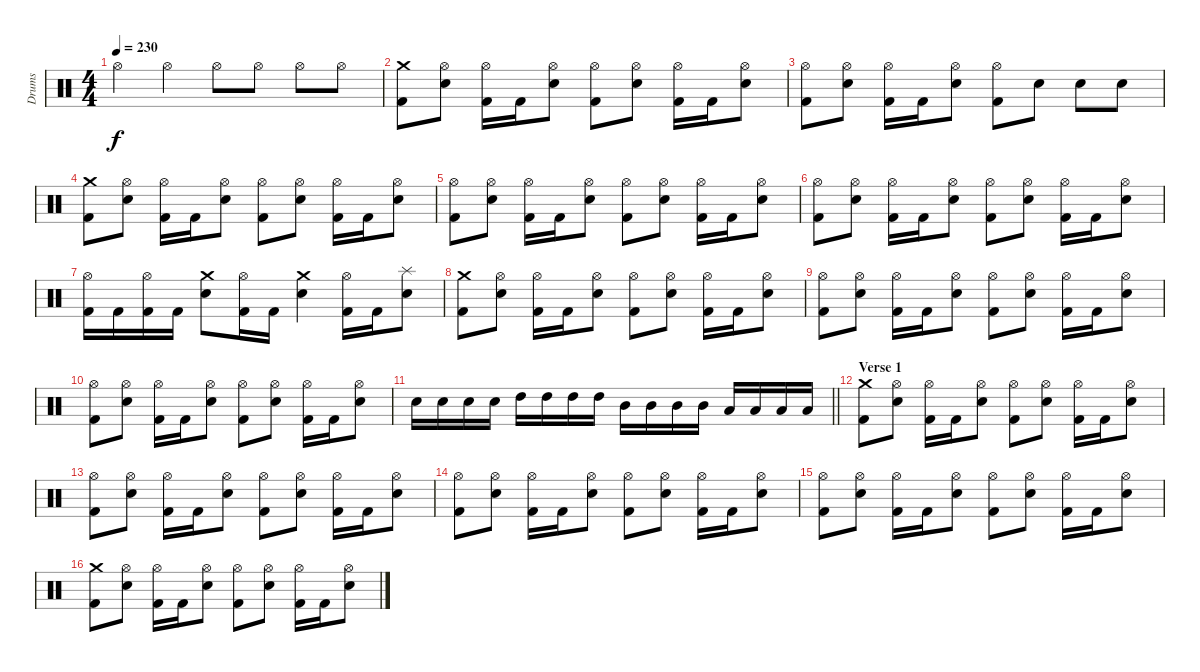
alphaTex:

\track ("Drums" "Drums") {instrument percussion}
\staff {score}
\articulation defaults
\ts (4 4)
\tempo 230
\clef neutral
\ks c "Hi-Hat (open)".4{dy f} "Hi-Hat (open)".4 "Hi-Hat (open)".8 "Hi-Hat (open)".8 "Hi-Hat (open)".8 "Hi-Hat (open)".8
|
("Crash medium (hit)" "Kick (hit) 2").8 ("Hi-Hat (open)" "Electric Snare (hit)").8 ("Hi-Hat (open)" "Kick (hit) 2").16 "Kick (hit) 2".16 ("Hi-Hat (open)" "Electric Snare (hit)").8 ("Hi-Hat (open)" "Kick (hit) 2").8 ("Hi-Hat (open)" "Electric Snare (hit)").8 ("Hi-Hat (open)" "Kick (hit) 2").16 "Kick (hit) 2".16 ("Hi-Hat (open)" "Electric Snare (hit)").8 |
("Hi-Hat (open)" "Kick (hit) 2").8 ("Hi-Hat (open)" "Electric Snare (hit)").8 ("Hi-Hat (open)" "Kick (hit) 2").16 "Kick (hit) 2".16 ("Hi-Hat (open)" "Electric Snare (hit)").8 ("Hi-Hat (open)" "Kick (hit) 2").8 "Electric Snare (hit)".8 "Electric Snare (hit)".8 "Electric Snare (hit)".8 |
("Crash medium (hit)" "Kick (hit) 2").8 ("Hi-Hat (open)" "Electric Snare (hit)").8 ("Hi-Hat (open)" "Kick (hit) 2").16 "Kick (hit) 2".16 ("Hi-Hat (open)" "Electric Snare (hit)").8 ("Hi-Hat (open)" "Kick (hit) 2").8 ("Hi-Hat (open)" "Electric Snare (hit)").8 ("Hi-Hat (open)" "Kick (hit) 2").16 "Kick (hit) 2".16 ("Hi-Hat (open)" "Electric Snare (hit)").8 |
("Hi-Hat (open)" "Kick (hit) 2").8 ("Hi-Hat (open)" "Electric Snare (hit)").8 ("Hi-Hat (open)" "Kick (hit) 2").16 "Kick (hit) 2".16 ("Hi-Hat (open)" "Electric Snare (hit)").8 ("Hi-Hat (open)" "Kick (hit) 2").8 ("Hi-Hat (open)" "Electric Snare (hit)").8 ("Hi-Hat (open)" "Kick (hit) 2").16 "Kick (hit) 2".16 ("Hi-Hat (open)" "Electric Snare (hit)").8 |
("Hi-Hat (open)" "Kick (hit) 2").8 ("Hi-Hat (open)" "Electric Snare (hit)").8 ("Hi-Hat (open)" "Kick (hit) 2").16 "Kick (hit) 2".16 ("Hi-Hat (open)" "Electric Snare (hit)").8 ("Hi-Hat (open)" "Kick (hit) 2").8 ("Hi-Hat (open)" "Electric Snare (hit)").8 ("Hi-Hat (open)" "Kick (hit) 2").16 "Kick (hit) 2".16 ("Hi-Hat (open)" "Electric Snare (hit)").8 |
("Hi-Hat (open)" "Kick (hit) 2").16 "Kick (hit) 2".16 ("Hi-Hat (open)" "Kick (hit) 2").16 "Kick (hit) 2".16 ("Crash medium (hit)" "Electric Snare (hit)").8 ("Hi-Hat (open)" "Kick (hit) 2").16 "Kick (hit) 2".16 ("Crash medium (hit)" "Electric Snare (hit)").4 ("Hi-Hat (open)" "Kick (hit) 2").16 "Kick (hit) 2".16 ("Splash (hit)" "Electric Snare (hit)").8 |
("Crash medium (hit)" "Kick (hit) 2").8 ("Hi-Hat (open)" "Electric Snare (hit)").8 ("Hi-Hat (open)" "Kick (hit) 2").16 "Kick (hit) 2".16 ("Hi-Hat (open)" "Electric Snare (hit)").8 ("Hi-Hat (open)" "Kick (hit) 2").8 ("Hi-Hat (open)" "Electric Snare (hit)").8 ("Hi-Hat (open)" "Kick (hit) 2").16 "Kick (hit) 2".16 ("Hi-Hat (open)" "Electric Snare (hit)").8 |
("Hi-Hat (open)" "Kick (hit) 2").8 ("Hi-Hat (open)" "Electric Snare (hit)").8 ("Hi-Hat (open)" "Kick (hit) 2").16 "Kick (hit) 2".16 ("Hi-Hat (open)" "Electric Snare (hit)").8 ("Hi-Hat (open)" "Kick (hit) 2").8 ("Hi-Hat (open)" "Electric Snare (hit)").8 ("Hi-Hat (open)" "Kick (hit) 2").16 "Kick (hit) 2".16 ("Hi-Hat (open)" "Electric Snare (hit)").8 |
("Hi-Hat (open)" "Kick (hit) 2").8 ("Hi-Hat (open)" "Electric Snare (hit)").8 ("Hi-Hat (open)" "Kick (hit) 2").16 "Kick (hit) 2".16 ("Hi-Hat (open)" "Electric Snare (hit)").8 ("Hi-Hat (open)" "Kick (hit) 2").8 ("Hi-Hat (open)" "Electric Snare (hit)").8 ("Hi-Hat (open)" "Kick (hit) 2").16 "Kick (hit) 2".16 ("Hi-Hat (open)" "Electric Snare (hit)").8 |
\barLineRight lightlight "Electric Snare (hit)".16 "Electric Snare (hit)".16 "Electric Snare (hit)".16 "Electric Snare (hit)".16 "High Tom (hit)".16 "High Tom (hit)".16 "High Tom (hit)".16 "High Tom (hit)".16 "Mid Tom (hit)".16 "Mid Tom (hit)".16 "Mid Tom (hit)".16 "Mid Tom (hit)".16 "Low Tom (hit)".16 "Low Tom (hit)".16 "Low Tom (hit)".16 "Low Tom (hit)".16
|
\section ("" "Verse 1")
("Crash medium (hit)" "Kick (hit) 2").8 ("Hi-Hat (open)" "Electric Snare (hit)").8 ("Hi-Hat (open)" "Kick (hit) 2").16 "Kick (hit) 2".16 ("Hi-Hat (open)" "Electric Snare (hit)").8 ("Hi-Hat (open)" "Kick (hit) 2").8 ("Hi-Hat (open)" "Electric Snare (hit)").8 ("Hi-Hat (open)" "Kick (hit) 2").16 "Kick (hit) 2".16 ("Hi-Hat (open)" "Electric Snare (hit)").8 |
("Hi-Hat (open)" "Kick (hit) 2").8 ("Hi-Hat (open)" "Electric Snare (hit)").8 ("Hi-Hat (open)" "Kick (hit) 2").16 "Kick (hit) 2".16 ("Hi-Hat (open)" "Electric Snare (hit)").8 ("Hi-Hat (open)" "Kick (hit) 2").8 ("Hi-Hat (open)" "Electric Snare (hit)").8 ("Hi-Hat (open)" "Kick (hit) 2").16 "Kick (hit) 2".16 ("Hi-Hat (open)" "Electric Snare (hit)").8 |
("Hi-Hat (open)" "Kick (hit) 2").8 ("Hi-Hat (open)" "Electric Snare (hit)").8 ("Hi-Hat (open)" "Kick (hit) 2").16 "Kick (hit) 2".16 ("Hi-Hat (open)" "Electric Snare (hit)").8 ("Hi-Hat (open)" "Kick (hit) 2").8 ("Hi-Hat (open)" "Electric Snare (hit)").8 ("Hi-Hat (open)" "Kick (hit) 2").16 "Kick (hit) 2".16 ("Hi-Hat (open)" "Electric Snare (hit)").8 |
("Hi-Hat (open)" "Kick (hit) 2").8 ("Hi-Hat (open)" "Electric Snare (hit)").8 ("Hi-Hat (open)" "Kick (hit) 2").16 "Kick (hit) 2".16 ("Hi-Hat (open)" "Electric Snare (hit)").8 ("Hi-Hat (open)" "Kick (hit) 2").8 ("Hi-Hat (open)" "Electric Snare (hit)").8 ("Hi-Hat (open)" "Kick (hit) 2").16 "Kick (hit) 2".16 ("Hi-Hat (open)" "Electric Snare (hit)").8 |
("Crash medium (hit)" "Kick (hit) 2").8 ("Hi-Hat (open)" "Electric Snare (hit)").8 ("Hi-Hat (open)" "Kick (hit) 2").16 "Kick (hit) 2".16 ("Hi-Hat (open)" "Electric Snare (hit)").8 ("Hi-Hat (open)" "Kick (hit) 2").8 ("Hi-Hat (open)" "Electric Snare (hit)").8 ("Hi-Hat (open)" "Kick (hit) 2").16 "Kick (hit) 2".16 ("Hi-Hat (open)" "Electric Snare (hit)").8
